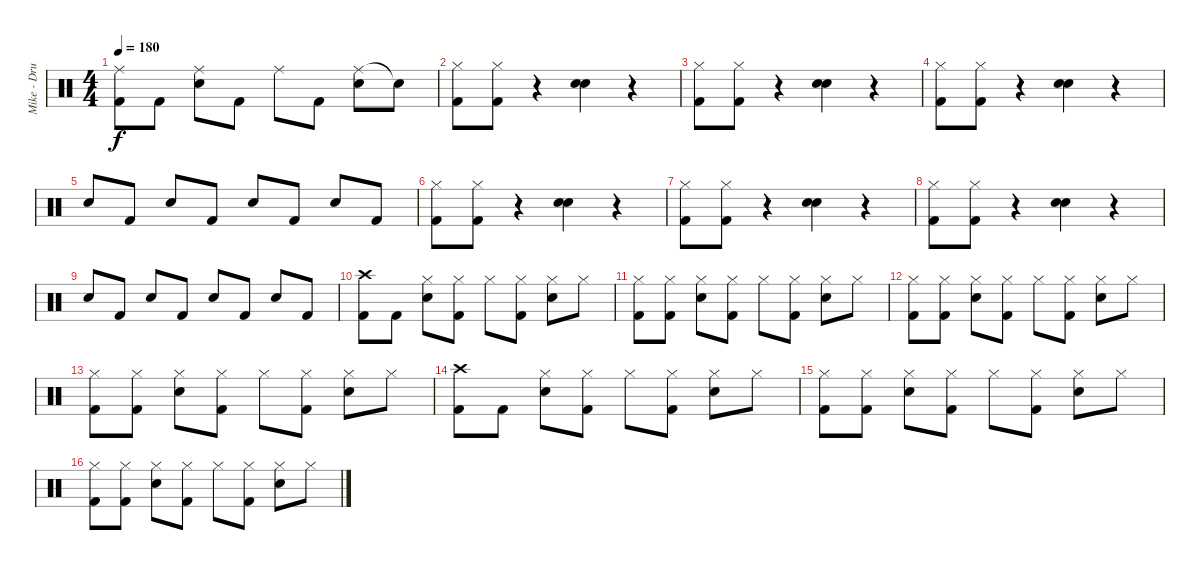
\track ("Mike - Drums" "Mike - Dru") {instrument percussion}
\staff {score}
\articulation defaults
\ts (4 4)
\tempo 180
\clef neutral
\ks c
("Ride (middle)" "Kick (hit) 2").8{dy f} "Kick (hit) 2".8 ("Ride (middle)" "Snare (hit) 2").8 "Kick (hit) 2".8 "Ride (middle)".8 "Kick (hit) 2".8 ("Ride (middle)" "Snare (hit) 2").8 "Snare (hit)"{t}.8 |
("Hi-Hat (closed)" "Kick (hit) 2").8 ("Hi-Hat (closed)" "Kick (hit) 2").8 r.4 ("Snare (hit) 2" "Snare (hit) 2").4 r.4 |
("Hi-Hat (closed)" "Kick (hit) 2").8 ("Hi-Hat (closed)" "Kick (hit) 2").8 r.4 ("Snare (hit) 2" "Snare (hit) 2").4 r.4 |
("Hi-Hat (closed)" "Kick (hit) 2").8 ("Hi-Hat (closed)" "Kick (hit) 2").8 r.4 ("Snare (hit) 2" "Snare (hit) 2").4 r.4 |
"Snare (hit) 2".8 "Kick (hit) 2".8 "Snare (hit) 2".8 "Kick (hit) 2".8 "Snare (hit) 2".8 "Kick (hit) 2".8 "Snare (hit) 2".8 "Kick (hit) 2".8 |
("Hi-Hat (closed)" "Kick (hit) 2").8 ("Hi-Hat (closed)" "Kick (hit) 2").8 r.4 ("Snare (hit) 2" "Snare (hit) 2").4 r.4 |
("Hi-Hat (closed)" "Kick (hit) 2").8 ("Hi-Hat (closed)" "Kick (hit) 2").8 r.4 ("Snare (hit) 2" "Snare (hit) 2").4 r.4 |
("Hi-Hat (closed)" "Kick (hit) 2").8 ("Hi-Hat (closed)" "Kick (hit) 2").8 r.4 ("Snare (hit) 2" "Snare (hit) 2").4 r.4 |
"Snare (hit) 2".8 "Kick (hit) 2".8 "Snare (hit) 2".8 "Kick (hit) 2".8 "Snare (hit) 2".8 "Kick (hit) 2".8 "Snare (hit) 2".8 "Kick (hit) 2".8 |
("Crash high (hit)" "Kick (hit) 2").8 "Kick (hit) 2".8 ("Hi-Hat (closed)" "Snare (hit) 2").8 ("Hi-Hat (closed)" "Kick (hit) 2").8 "Hi-Hat (closed)".8 ("Hi-Hat (closed)" "Kick (hit) 2").8 ("Hi-Hat (closed)" "Snare (hit) 2").8 "Hi-Hat (closed)".8 |
("Hi-Hat (closed)" "Kick (hit) 2").8 ("Hi-Hat (closed)" "Kick (hit) 2").8 ("Hi-Hat (closed)" "Snare (hit) 2").8 ("Hi-Hat (closed)" "Kick (hit) 2").8 "Hi-Hat (closed)".8 ("Hi-Hat (closed)" "Kick (hit) 2").8 ("Hi-Hat (closed)" "Snare (hit) 2").8 "Hi-Hat (closed)".8 |
("Hi-Hat (closed)" "Kick (hit) 2").8 ("Hi-Hat (closed)" "Kick (hit) 2").8 ("Hi-Hat (closed)" "Snare (hit) 2").8 ("Hi-Hat (closed)" "Kick (hit) 2").8 "Hi-Hat (closed)".8 ("Hi-Hat (closed)" "Kick (hit) 2").8 ("Hi-Hat (closed)" "Snare (hit) 2").8 "Hi-Hat (closed)".8 |
("Hi-Hat (closed)" "Kick (hit) 2").8 ("Hi-Hat (closed)" "Kick (hit) 2").8 ("Hi-Hat (closed)" "Snare (hit) 2").8 ("Hi-Hat (closed)" "Kick (hit) 2").8 "Hi-Hat (closed)".8 ("Hi-Hat (closed)" "Kick (hit) 2").8 ("Hi-Hat (closed)" "Snare (hit) 2").8 "Hi-Hat (closed)".8 |
("Crash high (hit)" "Kick (hit) 2").8 "Kick (hit) 2".8 ("Hi-Hat (closed)" "Snare (hit) 2").8 ("Hi-Hat (closed)" "Kick (hit) 2").8 "Hi-Hat (closed)".8 ("Hi-Hat (closed)" "Kick (hit) 2").8 ("Hi-Hat (closed)" "Snare (hit) 2").8 "Hi-Hat (closed)".8 |
("Hi-Hat (closed)" "Kick (hit) 2").8 ("Hi-Hat (closed)" "Kick (hit) 2").8 ("Hi-Hat (closed)" "Snare (hit) 2").8 ("Hi-Hat (closed)" "Kick (hit) 2").8 "Hi-Hat (closed)".8 ("Hi-Hat (closed)" "Kick (hit) 2").8 ("Hi-Hat (closed)" "Snare (hit) 2").8 "Hi-Hat (closed)".8 |
("Hi-Hat (closed)" "Kick (hit) 2").8 ("Hi-Hat (closed)" "Kick (hit) 2").8 ("Hi-Hat (closed)" "Snare (hit) 2").8 ("Hi-Hat (closed)" "Kick (hit) 2").8 "Hi-Hat (closed)".8 ("Hi-Hat (closed)" "Kick (hit) 2").8 ("Hi-Hat (closed)" "Snare (hit) 2").8 "Hi-Hat (closed)".8
